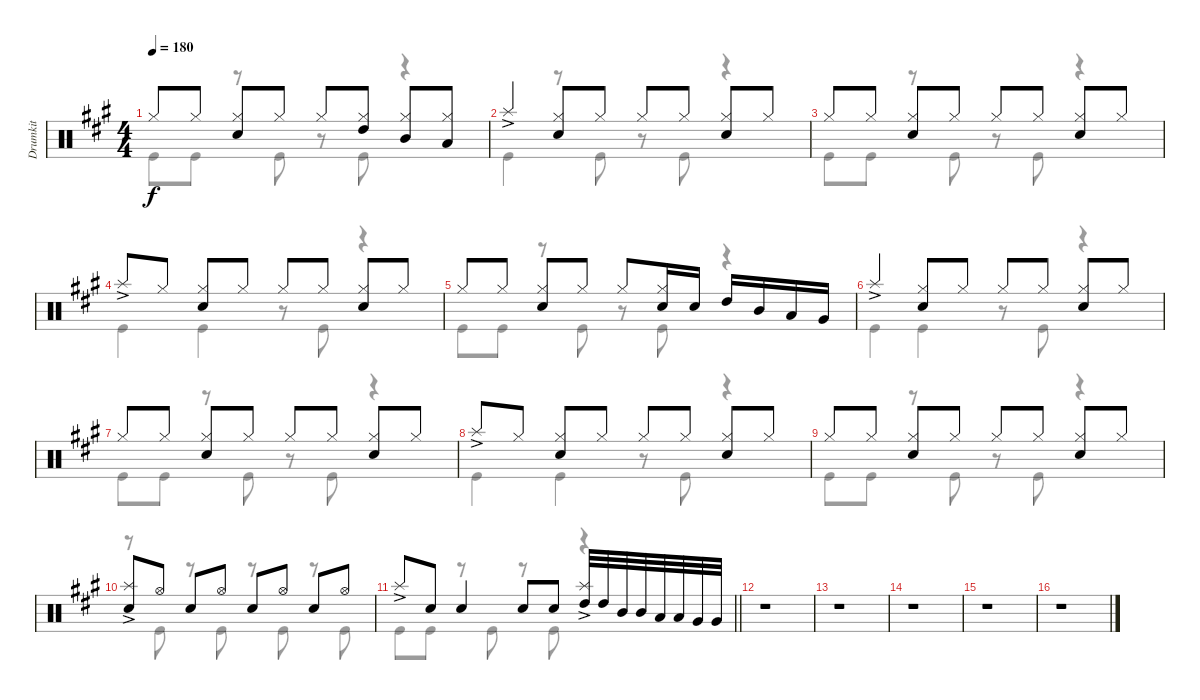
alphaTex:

\track ("Drumkit" "Drumkit") {instrument percussion}
\staff {score}
\articulation defaults
\voice
\ts (4 4)
\tempo 180
\clef neutral
\ks a "Hi-Hat (closed)".8{dy f} "Hi-Hat (closed)".8
("Hi-Hat (closed)" "Snare (hit) 2").8 "Hi-Hat (closed)".8 "Hi-Hat (closed)".8 ("Hi-Hat (closed)" "High Tom (hit)").8 ("Hi-Hat (closed)" "Mid Tom (hit)").8 ("Hi-Hat (closed)" "Low Tom (hit)").8 |
"Splash (hit)"{ac}.4 ("Hi-Hat (closed)" "Snare (hit) 2").8 "Hi-Hat (closed)".8 "Hi-Hat (closed)".8 "Hi-Hat (closed)".8 ("Hi-Hat (closed)" "Snare (hit) 2").8 "Hi-Hat (closed)".8 |
"Hi-Hat (closed)".8 "Hi-Hat (closed)".8 ("Hi-Hat (closed)" "Snare (hit) 2").8 "Hi-Hat (closed)".8 "Hi-Hat (closed)".8 "Hi-Hat (closed)".8 ("Hi-Hat (closed)" "Snare (hit) 2").8 "Hi-Hat (closed)".8 |
"Splash (hit)"{ac}.8 "Hi-Hat (closed)".8 ("Hi-Hat (closed)" "Snare (hit) 2").8 "Hi-Hat (closed)".8 "Hi-Hat (closed)".8 "Hi-Hat (closed)".8 ("Hi-Hat (closed)" "Snare (hit) 2").8 "Hi-Hat (closed)".8 |
"Hi-Hat (closed)".8 "Hi-Hat (closed)".8 ("Hi-Hat (closed)" "Snare (hit) 2").8 "Hi-Hat (closed)".8 "Hi-Hat (closed)".8 ("Hi-Hat (closed)" "Snare (hit) 2").16 "Snare (hit) 2".16 "High Tom (hit)".16 "Mid Tom (hit)".16 "Low Tom (hit)".16 "Very Low Tom (hit)".16 |
"Splash (hit)"{ac}.4 ("Hi-Hat (closed)" "Snare (hit) 2").8 "Hi-Hat (closed)".8 "Hi-Hat (closed)".8 "Hi-Hat (closed)".8 ("Hi-Hat (closed)" "Snare (hit) 2").8 "Hi-Hat (closed)".8 |
"Hi-Hat (closed)".8 "Hi-Hat (closed)".8 ("Hi-Hat (closed)" "Snare (hit) 2").8 "Hi-Hat (closed)".8 "Hi-Hat (closed)".8 "Hi-Hat (closed)".8 ("Hi-Hat (closed)" "Snare (hit) 2").8 "Hi-Hat (closed)".8 |
"Splash (hit)"{ac}.8 "Hi-Hat (closed)".8 ("Hi-Hat (closed)" "Snare (hit) 2").8 "Hi-Hat (closed)".8 "Hi-Hat (closed)".8 "Hi-Hat (closed)".8 ("Hi-Hat (closed)" "Snare (hit) 2").8 "Hi-Hat (closed)".8 |
"Hi-Hat (closed)".8 "Hi-Hat (closed)".8 ("Hi-Hat (closed)" "Snare (hit) 2").8 "Hi-Hat (closed)".8 "Hi-Hat (closed)".8 "Hi-Hat (closed)".8 ("Hi-Hat (closed)" "Snare (hit) 2").8 "Hi-Hat (closed)".8 |
("Splash (hit)"{ac} "Snare (hit) 2").8 "Hi-Hat (open)".8 "Snare (hit) 2".8 "Hi-Hat (open)".8 "Snare (hit) 2".8 "Hi-Hat (open)".8 "Snare (hit) 2".8 "Hi-Hat (open)".8 |
\barLineRight lightlight "Splash (hit)"{ac}.8 "Snare (hit) 2".8 "Snare (hit) 2".4 "Snare (hit) 2".8 "Snare (hit) 2".8
("Splash (hit)"{ac} "High Tom (hit)").32 "High Tom (hit)".32 "Mid Tom (hit)".32 "Mid Tom (hit)".32 "Low Tom (hit)".32 "Low Tom (hit)".32 "Very Low Tom (hit)".32 "Very Low Tom (hit)".32 |
\section ("" "")
r.1 |
r.1 |
r.1 |
r.1 |
r.1
\voice
\clef neutral
\ottava regular
\simile none
\ks a "Kick (hit)".8{dy f} "Kick (hit)".8
r.8 "Kick (hit)".8 r.8 "Kick (hit)".8 r.4 |
"Kick (hit)".4 r.8 "Kick (hit)".8 r.8 "Kick (hit)".8 r.4 |
"Kick (hit)".8 "Kick (hit)".8 r.8 "Kick (hit)".8 r.8 "Kick (hit)".8 r.4 |
"Kick (hit)".4 "Kick (hit)".4 r.8 "Kick (hit)".8 r.4 |
"Kick (hit)".8 "Kick (hit)".8 r.8 "Kick (hit)".8 r.8 "Kick (hit)".8 r.4 |
"Kick (hit)".4 "Kick (hit)".4 r.8 "Kick (hit)".8 r.4 |
"Kick (hit)".8 "Kick (hit)".8 r.8 "Kick (hit)".8 r.8 "Kick (hit)".8 r.4 |
"Kick (hit)".4 "Kick (hit)".4 r.8 "Kick (hit)".8 r.4 |
"Kick (hit)".8 "Kick (hit)".8 r.8 "Kick (hit)".8 r.8 "Kick (hit)".8 r.4 |
r.8 "Kick (hit)".8 r.8 "Kick (hit)".8 r.8 "Kick (hit)".8 r.8 "Kick (hit)".8 |
\barLineRight lightlight "Kick (hit)".8 "Kick (hit)".8
r.8 "Kick (hit)".8 r.8 "Kick (hit)".8 r.4 |
r.1 |
r.1 |
r.1 |
r.1 |
r.1
